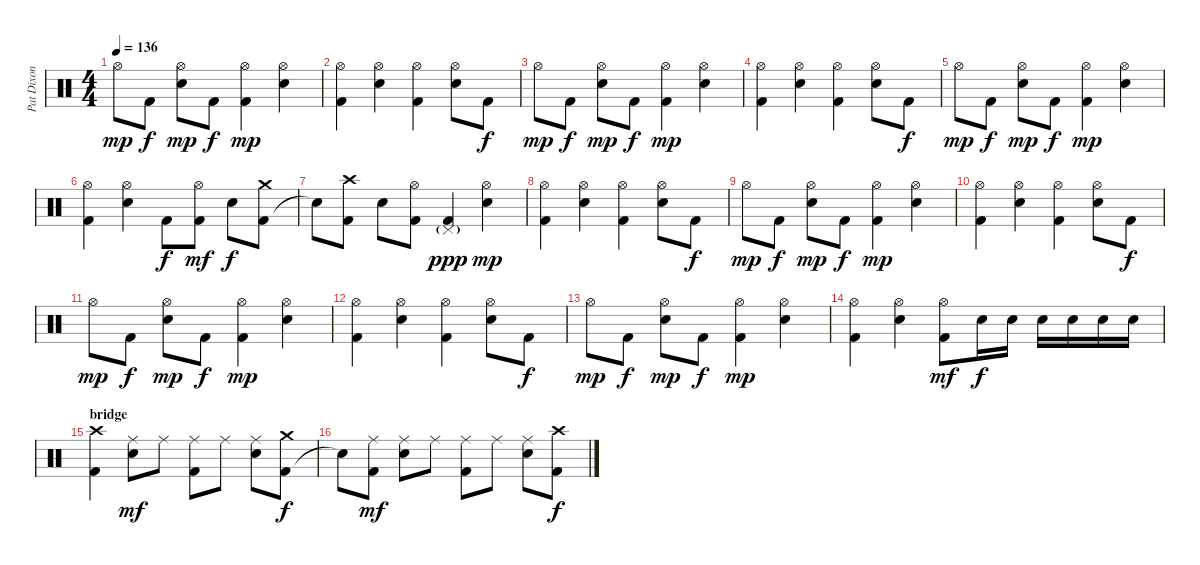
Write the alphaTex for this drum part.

\track ("Pat Dixon" "Pat Dixon") {instrument percussion}
\staff {score}
\articulation defaults
\ts (4 4)
\tempo 136
\clef neutral
\ks c "Hi-Hat (open)".8{dy mp} "Kick (hit) 2".8{dy f}
("Hi-Hat (open)" "Snare (hit) 2").8{dy mp} "Kick (hit) 2".8{dy f} ("Kick (hit) 2" "Hi-Hat (open)").4{dy mp} ("Hi-Hat (open)" "Snare (hit) 2").4 |
("Kick (hit) 2" "Hi-Hat (open)").4 ("Hi-Hat (open)" "Snare (hit) 2").4 ("Kick (hit) 2" "Hi-Hat (open)").4 ("Hi-Hat (open)" "Snare (hit) 2").8 "Kick (hit) 2".8{dy f} |
"Hi-Hat (open)".8{dy mp} "Kick (hit) 2".8{dy f} ("Hi-Hat (open)" "Snare (hit) 2").8{dy mp} "Kick (hit) 2".8{dy f} ("Kick (hit) 2" "Hi-Hat (open)").4{dy mp} ("Hi-Hat (open)" "Snare (hit) 2").4 |
("Kick (hit) 2" "Hi-Hat (open)").4 ("Hi-Hat (open)" "Snare (hit) 2").4 ("Kick (hit) 2" "Hi-Hat (open)").4 ("Hi-Hat (open)" "Snare (hit) 2").8 "Kick (hit) 2".8{dy f} |
"Hi-Hat (open)".8{dy mp} "Kick (hit) 2".8{dy f} ("Hi-Hat (open)" "Snare (hit) 2").8{dy mp} "Kick (hit) 2".8{dy f} ("Kick (hit) 2" "Hi-Hat (open)").4{dy mp} ("Hi-Hat (open)" "Snare (hit) 2").4 |
("Kick (hit) 2" "Hi-Hat (open)").4 ("Hi-Hat (open)" "Snare (hit) 2").4 "Kick (hit) 2".8{dy f} ("Kick (hit) 2" "Hi-Hat (open)").8{dy mf} "Snare (hit) 2".8{dy f} ("Kick (hit) 2" "Crash medium (hit)").8 |
"Snare (hit)"{t}.8 ("Kick (hit) 2" "Crash high (hit)").8 "Snare (hit) 2".8 ("Kick (hit) 2" "Hi-Hat (open)").8 ("Kick (hit) 2" "Pedal Hi-Hat (hit)"{g}).4{dy ppp} ("Hi-Hat (open)" "Snare (hit) 2").4{dy mp} |
("Kick (hit) 2" "Hi-Hat (open)").4 ("Hi-Hat (open)" "Snare (hit) 2").4 ("Kick (hit) 2" "Hi-Hat (open)").4 ("Hi-Hat (open)" "Snare (hit) 2").8 "Kick (hit) 2".8{dy f} |
"Hi-Hat (open)".8{dy mp} "Kick (hit) 2".8{dy f} ("Hi-Hat (open)" "Snare (hit) 2").8{dy mp} "Kick (hit) 2".8{dy f} ("Kick (hit) 2" "Hi-Hat (open)").4{dy mp} ("Hi-Hat (open)" "Snare (hit) 2").4 |
("Kick (hit) 2" "Hi-Hat (open)").4 ("Hi-Hat (open)" "Snare (hit) 2").4 ("Kick (hit) 2" "Hi-Hat (open)").4 ("Hi-Hat (open)" "Snare (hit) 2").8 "Kick (hit) 2".8{dy f} |
"Hi-Hat (open)".8{dy mp} "Kick (hit) 2".8{dy f} ("Hi-Hat (open)" "Snare (hit) 2").8{dy mp} "Kick (hit) 2".8{dy f} ("Kick (hit) 2" "Hi-Hat (open)").4{dy mp} ("Hi-Hat (open)" "Snare (hit) 2").4 |
("Kick (hit) 2" "Hi-Hat (open)").4 ("Hi-Hat (open)" "Snare (hit) 2").4 ("Kick (hit) 2" "Hi-Hat (open)").4 ("Hi-Hat (open)" "Snare (hit) 2").8 "Kick (hit) 2".8{dy f} |
"Hi-Hat (open)".8{dy mp} "Kick (hit) 2".8{dy f} ("Hi-Hat (open)" "Snare (hit) 2").8{dy mp} "Kick (hit) 2".8{dy f} ("Kick (hit) 2" "Hi-Hat (open)").4{dy mp} ("Hi-Hat (open)" "Snare (hit) 2").4 |
("Kick (hit) 2" "Hi-Hat (open)").4 ("Hi-Hat (open)" "Snare (hit) 2").4 ("Kick (hit) 2" "Hi-Hat (open)").8{dy mf} "Snare (hit) 2".16{dy f} "Snare (hit) 2".16 "Snare (hit) 2".16 "Snare (hit) 2".16 "Snare (hit) 2".16 "Snare (hit) 2".16 |
\section ("" "bridge")
("Kick (hit) 2" "Crash high (hit)").4 ("Ride (middle)" "Snare (hit) 2").8{dy mf} "Ride (middle)".8 ("Kick (hit) 2" "Ride (middle)").8 "Ride (middle)".8 ("Ride (middle)" "Snare (hit) 2").8 ("Kick (hit) 2" "Crash medium (hit)").8{dy f} |
"Snare (hit)"{t}.8 ("Kick (hit) 2" "Ride (middle)").8{dy mf} ("Ride (middle)" "Snare (hit) 2").8 "Ride (middle)".8 ("Kick (hit) 2" "Ride (middle)").8 "Ride (middle)".8 ("Ride (middle)" "Snare (hit) 2").8 ("Kick (hit) 2" "Crash high (hit)").8{dy f}
